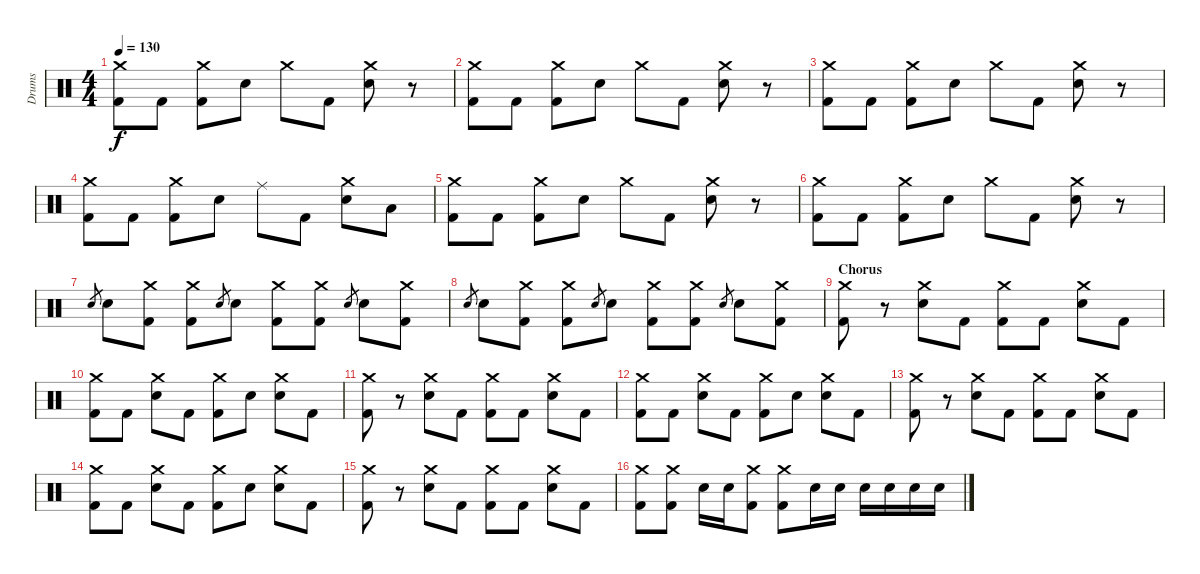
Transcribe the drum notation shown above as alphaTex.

\track ("Drums" "Drums") {instrument percussion}
\staff {score}
\articulation defaults
\ts (4 4)
\tempo 130
\clef neutral
\ks c
("Crash medium (hit)" "Kick (hit) 2").8{dy f} "Kick (hit) 2".8 ("Crash medium (hit)" "Kick (hit) 2").8 "Electric Snare (hit)".8 "Crash medium (hit)".8 "Kick (hit) 2".8 ("Crash medium (hit)" "Electric Snare (hit)").8 r.8 |
("Crash medium (hit)" "Kick (hit) 2").8 "Kick (hit) 2".8 ("Crash medium (hit)" "Kick (hit) 2").8 "Electric Snare (hit)".8 "Crash medium (hit)".8 "Kick (hit) 2".8 ("Crash medium (hit)" "Electric Snare (hit)").8 r.8 |
("Crash medium (hit)" "Kick (hit) 2").8 "Kick (hit) 2".8 ("Crash medium (hit)" "Kick (hit) 2").8 "Electric Snare (hit)".8 "Crash medium (hit)".8 "Kick (hit) 2".8 ("Crash medium (hit)" "Electric Snare (hit)").8 r.8 |
("Crash medium (hit)" "Kick (hit) 2").8 "Kick (hit) 2".8 ("Crash medium (hit)" "Kick (hit) 2").8 "Electric Snare (hit)".8 "Ride (middle)".8 "Kick (hit) 2".8 ("Crash medium (hit)" "Electric Snare (hit)").8 "Low Floor Tom (hit)".8 |
("Crash medium (hit)" "Kick (hit) 2").8 "Kick (hit) 2".8 ("Crash medium (hit)" "Kick (hit) 2").8 "Electric Snare (hit)".8 "Crash medium (hit)".8 "Kick (hit) 2".8 ("Crash medium (hit)" "Electric Snare (hit)").8 r.8 |
("Crash medium (hit)" "Kick (hit) 2").8 "Kick (hit) 2".8 ("Crash medium (hit)" "Kick (hit) 2").8 "Electric Snare (hit)".8 "Crash medium (hit)".8 "Kick (hit) 2".8 ("Crash medium (hit)" "Electric Snare (hit)").8 r.8 |
"Electric Snare (hit)".8{gr} "Electric Snare (hit)".8 ("Crash medium (hit)" "Kick (hit) 2").8 ("Crash medium (hit)" "Kick (hit) 2").8 "Electric Snare (hit)".8{gr} "Electric Snare (hit)".8 ("Crash medium (hit)" "Kick (hit) 2").8 ("Crash medium (hit)" "Kick (hit) 2").8 "Electric Snare (hit)".8{gr} "Electric Snare (hit)".8 ("Crash medium (hit)" "Kick (hit) 2").8 |
"Electric Snare (hit)".8{gr} "Electric Snare (hit)".8 ("Crash medium (hit)" "Kick (hit) 2").8 ("Crash medium (hit)" "Kick (hit) 2").8 "Electric Snare (hit)".8{gr} "Electric Snare (hit)".8 ("Crash medium (hit)" "Kick (hit) 2").8 ("Crash medium (hit)" "Kick (hit) 2").8 "Electric Snare (hit)".8{gr} "Electric Snare (hit)".8 ("Crash medium (hit)" "Kick (hit) 2").8 |
\section ("" "Chorus")
("Crash medium (hit)" "Kick (hit) 2").8 r.8 ("Crash medium (hit)" "Electric Snare (hit)").8 "Kick (hit) 2".8 ("Crash medium (hit)" "Kick (hit) 2").8 "Kick (hit) 2".8 ("Crash medium (hit)" "Electric Snare (hit)").8 "Kick (hit) 2".8 |
("Crash medium (hit)" "Kick (hit) 2").8 "Kick (hit) 2".8 ("Crash medium (hit)" "Electric Snare (hit)").8 "Kick (hit) 2".8 ("Crash medium (hit)" "Kick (hit) 2").8 "Electric Snare (hit)".8 ("Crash medium (hit)" "Electric Snare (hit)").8 "Kick (hit) 2".8 |
("Crash medium (hit)" "Kick (hit) 2").8 r.8 ("Crash medium (hit)" "Electric Snare (hit)").8 "Kick (hit) 2".8 ("Crash medium (hit)" "Kick (hit) 2").8 "Kick (hit) 2".8 ("Crash medium (hit)" "Electric Snare (hit)").8 "Kick (hit) 2".8 |
("Crash medium (hit)" "Kick (hit) 2").8 "Kick (hit) 2".8 ("Crash medium (hit)" "Electric Snare (hit)").8 "Kick (hit) 2".8 ("Crash medium (hit)" "Kick (hit) 2").8 "Electric Snare (hit)".8 ("Crash medium (hit)" "Electric Snare (hit)").8 "Kick (hit) 2".8 |
("Crash medium (hit)" "Kick (hit) 2").8 r.8 ("Crash medium (hit)" "Electric Snare (hit)").8 "Kick (hit) 2".8 ("Crash medium (hit)" "Kick (hit) 2").8 "Kick (hit) 2".8 ("Crash medium (hit)" "Electric Snare (hit)").8 "Kick (hit) 2".8 |
("Crash medium (hit)" "Kick (hit) 2").8 "Kick (hit) 2".8 ("Crash medium (hit)" "Electric Snare (hit)").8 "Kick (hit) 2".8 ("Crash medium (hit)" "Kick (hit) 2").8 "Electric Snare (hit)".8 ("Crash medium (hit)" "Electric Snare (hit)").8 "Kick (hit) 2".8 |
("Crash medium (hit)" "Kick (hit) 2").8 r.8 ("Crash medium (hit)" "Electric Snare (hit)").8 "Kick (hit) 2".8 ("Crash medium (hit)" "Kick (hit) 2").8 "Kick (hit) 2".8 ("Crash medium (hit)" "Electric Snare (hit)").8 "Kick (hit) 2".8 |
("Crash medium (hit)" "Kick (hit) 2").8 ("Crash medium (hit)" "Kick (hit) 2").8 "Electric Snare (hit)".16 "Electric Snare (hit)".16 ("Crash medium (hit)" "Kick (hit) 2").8 ("Crash medium (hit)" "Kick (hit) 2").8 "Electric Snare (hit)".16 "Electric Snare (hit)".16 "Electric Snare (hit)".16 "Electric Snare (hit)".16 "Electric Snare (hit)".16 "Electric Snare (hit)".16
